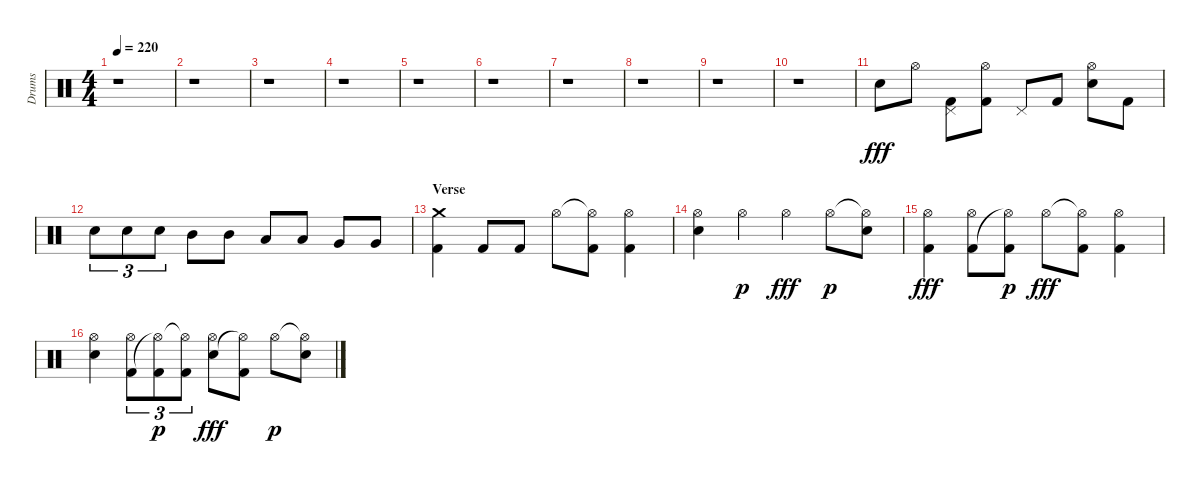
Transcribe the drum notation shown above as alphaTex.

\track ("Drums" "Drums") {instrument percussion}
\staff {score}
\articulation defaults
\ts (4 4)
\tempo 220
\clef neutral
\ks aminor
r.1{dy fff} |
r.1 |
r.1 |
r.1 |
r.1 |
r.1 |
r.1 |
r.1 |
r.1 |
r.1 |
"Snare (hit) 2".8 "Hi-Hat (open)".8 ("Kick (hit) 2" "Pedal Hi-Hat (hit)").8 ("Kick (hit) 2" "Hi-Hat (open)").8 "Pedal Hi-Hat (hit)".8 "Kick (hit) 2".8 ("Snare (hit) 2" "Hi-Hat (open)").8 "Kick (hit) 2".8 |
"Snare (hit) 2".8{tu (3 2)} "Snare (hit) 2".8{tu (3 2)} "Snare (hit) 2".8{tu (3 2)} "Mid Tom (hit)".8 "Mid Tom (hit)".8 "Low Tom (hit)".8 "Low Tom (hit)".8 "Very Low Tom (hit)".8 "Very Low Tom (hit)".8 |
\section ("" "Verse")
("Kick (hit) 2" "Crash medium (hit)").4 "Kick (hit) 2".8 "Kick (hit) 2".8 "Hi-Hat (open)".8 ("Hi-Hat (open)"{t} "Kick (hit) 2").8 ("Kick (hit) 2" "Hi-Hat (open)").4 |
("Snare (hit) 2" "Hi-Hat (open)").4 "Hi-Hat (open)".4{dy p} "Hi-Hat (open)".4{dy fff} "Hi-Hat (open)".8{dy p} ("Hi-Hat (open)"{t} "Snare (hit) 2").8 |
("Kick (hit) 2" "Hi-Hat (open)").4{dy fff} ("Kick (hit) 2" "Hi-Hat (open)").8 ("Hi-Hat (open)"{t} "Kick (hit) 2").8{dy p} "Hi-Hat (open)".8{dy fff} ("Hi-Hat (open)"{t} "Kick (hit) 2").8 ("Kick (hit) 2" "Hi-Hat (open)").4 |
("Snare (hit) 2" "Hi-Hat (open)").4 ("Kick (hit) 2" "Hi-Hat (open)").8{tu (3 2)} ("Hi-Hat (open)"{t} "Kick (hit) 2").8{tu (3 2) dy p} ("Hi-Hat (open)"{t} "Kick (hit) 2").8{tu (3 2)} ("Snare (hit) 2" "Hi-Hat (open)").8{dy fff} ("Hi-Hat (open)"{t} "Kick (hit) 2").8 "Hi-Hat (open)".8{dy p} ("Hi-Hat (open)"{t} "Snare (hit) 2").8
